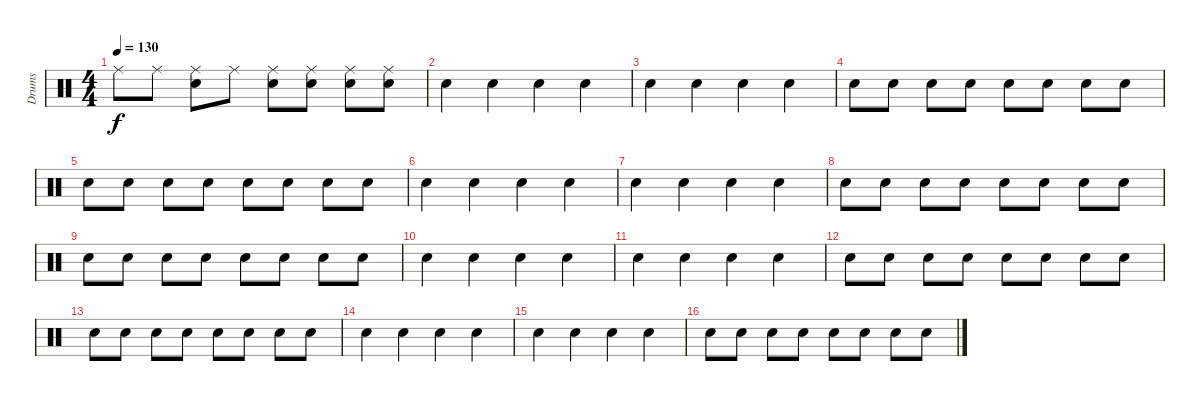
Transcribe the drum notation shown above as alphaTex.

\track ("Drums" "Drums") {instrument percussion}
\staff {score}
\articulation defaults
\ts (4 4)
\tempo 130
\clef neutral
\ks c "Ride (middle)".8{dy f} "Ride (middle)".8
("Ride (middle)" "Snare (hit) 2").8 "Ride (middle)".8 ("Ride (middle)" "Snare (hit) 2").8 ("Ride (middle)" "Snare (hit) 2").8 ("Ride (middle)" "Snare (hit) 2").8 ("Ride (middle)" "Snare (hit) 2").8 |
"Snare (hit) 2".4 "Snare (hit) 2".4 "Snare (hit) 2".4 "Snare (hit) 2".4 |
"Snare (hit) 2".4 "Snare (hit) 2".4 "Snare (hit) 2".4 "Snare (hit) 2".4 |
"Snare (hit) 2".8 "Snare (hit) 2".8 "Snare (hit) 2".8 "Snare (hit) 2".8 "Snare (hit) 2".8 "Snare (hit) 2".8 "Snare (hit) 2".8 "Snare (hit) 2".8 |
"Snare (hit) 2".8 "Snare (hit) 2".8 "Snare (hit) 2".8 "Snare (hit) 2".8 "Snare (hit) 2".8 "Snare (hit) 2".8 "Snare (hit) 2".8 "Snare (hit) 2".8 |
"Snare (hit) 2".4 "Snare (hit) 2".4 "Snare (hit) 2".4 "Snare (hit) 2".4 |
"Snare (hit) 2".4 "Snare (hit) 2".4 "Snare (hit) 2".4 "Snare (hit) 2".4 |
"Snare (hit) 2".8 "Snare (hit) 2".8 "Snare (hit) 2".8 "Snare (hit) 2".8 "Snare (hit) 2".8 "Snare (hit) 2".8 "Snare (hit) 2".8 "Snare (hit) 2".8 |
"Snare (hit) 2".8 "Snare (hit) 2".8 "Snare (hit) 2".8 "Snare (hit) 2".8 "Snare (hit) 2".8 "Snare (hit) 2".8 "Snare (hit) 2".8 "Snare (hit) 2".8 |
"Snare (hit) 2".4 "Snare (hit) 2".4 "Snare (hit) 2".4 "Snare (hit) 2".4 |
"Snare (hit) 2".4 "Snare (hit) 2".4 "Snare (hit) 2".4 "Snare (hit) 2".4 |
"Snare (hit) 2".8 "Snare (hit) 2".8 "Snare (hit) 2".8 "Snare (hit) 2".8 "Snare (hit) 2".8 "Snare (hit) 2".8 "Snare (hit) 2".8 "Snare (hit) 2".8 |
"Snare (hit) 2".8 "Snare (hit) 2".8 "Snare (hit) 2".8 "Snare (hit) 2".8 "Snare (hit) 2".8 "Snare (hit) 2".8 "Snare (hit) 2".8 "Snare (hit) 2".8 |
"Snare (hit) 2".4 "Snare (hit) 2".4 "Snare (hit) 2".4 "Snare (hit) 2".4 |
"Snare (hit) 2".4 "Snare (hit) 2".4 "Snare (hit) 2".4 "Snare (hit) 2".4 |
"Snare (hit) 2".8 "Snare (hit) 2".8 "Snare (hit) 2".8 "Snare (hit) 2".8 "Snare (hit) 2".8 "Snare (hit) 2".8 "Snare (hit) 2".8 "Snare (hit) 2".8
